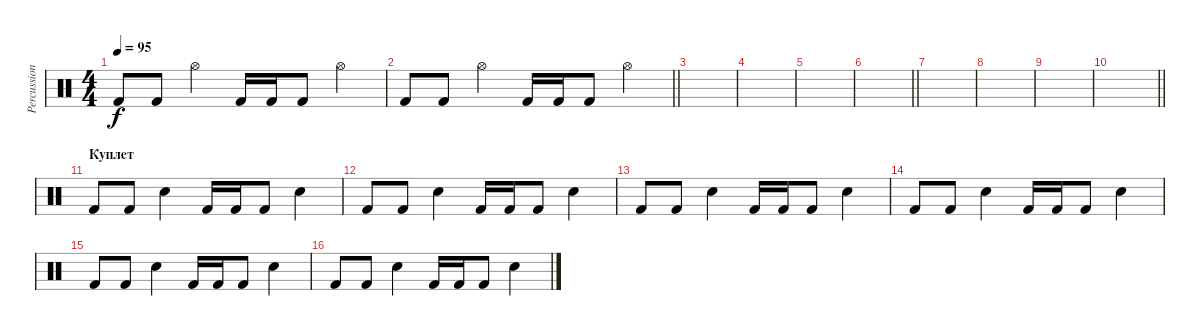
\track ("Percussion" "Percussion") {instrument percussion}
\staff {score}
\articulation defaults
\ts (4 4)
\tempo 95
\clef neutral
\ks c "Kick (hit) 2".8{dy f} "Kick (hit) 2".8 "Hi-Hat (open)".4 "Kick (hit) 2".16 "Kick (hit) 2".16 "Kick (hit) 2".8 "Hi-Hat (open)".4
|
\barLineRight lightlight "Kick (hit) 2".8 "Kick (hit) 2".8 "Hi-Hat (open)".4 "Kick (hit) 2".16 "Kick (hit) 2".16 "Kick (hit) 2".8 "Hi-Hat (open)".4
|
|
|
|
\barLineRight lightlight
|
|
|
|
\barLineRight lightlight
|
\section ("" "Куплет")
"Kick (hit) 2".8 "Kick (hit) 2".8 "Electric Snare (hit)".4 "Kick (hit) 2".16 "Kick (hit) 2".16 "Kick (hit) 2".8 "Electric Snare (hit)".4 |
"Kick (hit) 2".8 "Kick (hit) 2".8 "Electric Snare (hit)".4 "Kick (hit) 2".16 "Kick (hit) 2".16 "Kick (hit) 2".8 "Electric Snare (hit)".4 |
"Kick (hit) 2".8 "Kick (hit) 2".8 "Electric Snare (hit)".4 "Kick (hit) 2".16 "Kick (hit) 2".16 "Kick (hit) 2".8 "Electric Snare (hit)".4 |
"Kick (hit) 2".8 "Kick (hit) 2".8 "Electric Snare (hit)".4 "Kick (hit) 2".16 "Kick (hit) 2".16 "Kick (hit) 2".8 "Electric Snare (hit)".4 |
"Kick (hit) 2".8 "Kick (hit) 2".8 "Electric Snare (hit)".4 "Kick (hit) 2".16 "Kick (hit) 2".16 "Kick (hit) 2".8 "Electric Snare (hit)".4 |
"Kick (hit) 2".8 "Kick (hit) 2".8 "Electric Snare (hit)".4 "Kick (hit) 2".16 "Kick (hit) 2".16 "Kick (hit) 2".8 "Electric Snare (hit)".4
